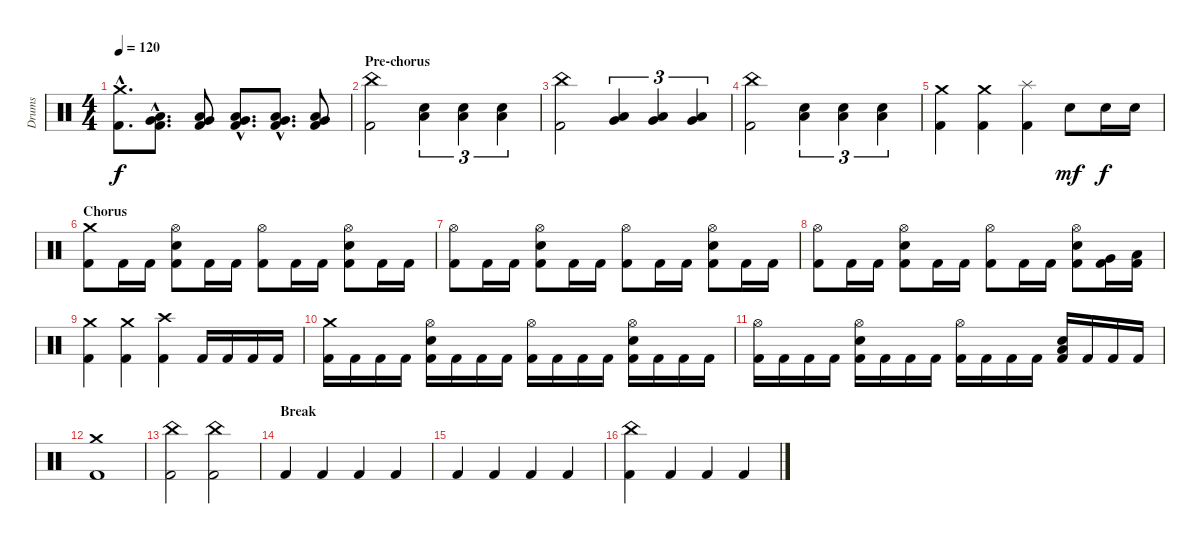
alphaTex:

\track ("Drums" "Drums") {instrument percussion}
\staff {score}
\articulation defaults
\ts (4 4)
\tempo 120
\clef neutral
\ks c
("Crash medium (hit)"{hac} "Kick (hit) 2"{hac}).8{d dy f} ("Very Low Tom (hit)"{hac} "Low Floor Tom (hit)"{hac} "Kick (hit) 2"{hac}).8{d} ("Very Low Tom (hit)" "Low Floor Tom (hit)" "Kick (hit) 2").8 ("Very Low Tom (hit)"{hac} "Low Floor Tom (hit)"{hac} "Kick (hit) 2"{hac}).8{d} ("Very Low Tom (hit)"{hac} "Low Floor Tom (hit)"{hac} "Kick (hit) 2"{hac}).8{d} ("Very Low Tom (hit)" "Low Floor Tom (hit)" "Kick (hit) 2").8 |
\section ("" "Pre-chorus")
("China (hit)" "Kick (hit) 2").2 ("Low Floor Tom (hit)" "Snare (hit) 2").4{tu (3 2)} ("Low Floor Tom (hit)" "Snare (hit) 2").4{tu (3 2)} ("Low Floor Tom (hit)" "Snare (hit) 2").4{tu (3 2)} |
("China (hit)" "Kick (hit) 2").2 ("Very Low Tom (hit)" "Low Floor Tom (hit)").4{tu (3 2)} ("Very Low Tom (hit)" "Low Floor Tom (hit)").4{tu (3 2)} ("Very Low Tom (hit)" "Low Floor Tom (hit)").4{tu (3 2)} |
("China (hit)" "Kick (hit) 2").2 ("Low Floor Tom (hit)" "Snare (hit) 2").4{tu (3 2)} ("Low Floor Tom (hit)" "Snare (hit) 2").4{tu (3 2)} ("Low Floor Tom (hit)" "Snare (hit) 2").4{tu (3 2)} |
("Crash medium (hit)" "Kick (hit) 2").4 ("Crash medium (hit)" "Kick (hit) 2").4 ("Splash (hit)" "Kick (hit) 2").4 "Snare (hit) 2".8{dy mf} "Snare (hit) 2".16{dy f} "Snare (hit) 2".16 |
\section ("" "Chorus")
("Crash medium (hit)" "Kick (hit) 2").8 "Kick (hit) 2".16 "Kick (hit) 2".16 ("Hi-Hat (open)" "Snare (hit) 2" "Kick (hit) 2").8 "Kick (hit) 2".16 "Kick (hit) 2".16 ("Hi-Hat (open)" "Kick (hit) 2").8 "Kick (hit) 2".16 "Kick (hit) 2".16 ("Hi-Hat (open)" "Snare (hit) 2" "Kick (hit) 2").8 "Kick (hit) 2".16 "Kick (hit) 2".16 |
("Hi-Hat (open)" "Kick (hit) 2").8 "Kick (hit) 2".16 "Kick (hit) 2".16 ("Hi-Hat (open)" "Snare (hit) 2" "Kick (hit) 2").8 "Kick (hit) 2".16 "Kick (hit) 2".16 ("Hi-Hat (open)" "Kick (hit) 2").8 "Kick (hit) 2".16 "Kick (hit) 2".16 ("Hi-Hat (open)" "Snare (hit) 2" "Kick (hit) 2").8 "Kick (hit) 2".16 "Kick (hit) 2".16 |
("Hi-Hat (open)" "Kick (hit) 2").8 "Kick (hit) 2".16 "Kick (hit) 2".16 ("Hi-Hat (open)" "Snare (hit) 2" "Kick (hit) 2").8 "Kick (hit) 2".16 "Kick (hit) 2".16 ("Hi-Hat (open)" "Kick (hit) 2").8 "Kick (hit) 2".16 "Kick (hit) 2".16 ("Hi-Hat (open)" "Snare (hit) 2" "Kick (hit) 2").8 ("Very Low Tom (hit)" "Kick (hit) 2").16 ("Low Floor Tom (hit)" "Kick (hit) 2").16 |
("Crash medium (hit)" "Kick (hit) 2").4 ("Crash medium (hit)" "Kick (hit) 2").4 ("Crash high (hit)" "Kick (hit) 2").4 "Kick (hit) 2".16 "Kick (hit) 2".16 "Kick (hit) 2".16 "Kick (hit) 2".16 |
("Crash medium (hit)" "Kick (hit) 2").16 "Kick (hit) 2".16 "Kick (hit) 2".16 "Kick (hit) 2".16 ("Hi-Hat (open)" "Snare (hit) 2" "Kick (hit) 2").16 "Kick (hit) 2".16 "Kick (hit) 2".16 "Kick (hit) 2".16 ("Hi-Hat (open)" "Kick (hit) 2").16 "Kick (hit) 2".16 "Kick (hit) 2".16 "Kick (hit) 2".16 ("Hi-Hat (open)" "Snare (hit) 2" "Kick (hit) 2").16 "Kick (hit) 2".16 "Kick (hit) 2".16 "Kick (hit) 2".16 |
("Hi-Hat (open)" "Kick (hit) 2").16 "Kick (hit) 2".16 "Kick (hit) 2".16 "Kick (hit) 2".16 ("Hi-Hat (open)" "Snare (hit) 2" "Kick (hit) 2").16 "Kick (hit) 2".16 "Kick (hit) 2".16 "Kick (hit) 2".16 ("Hi-Hat (open)" "Kick (hit) 2").16 "Kick (hit) 2".16 "Kick (hit) 2".16 "Kick (hit) 2".16 ("Low Floor Tom (hit)" "Snare (hit) 2" "Kick (hit) 2").16 "Kick (hit) 2".16 "Kick (hit) 2".16 "Kick (hit) 2".16 |
("Crash medium (hit)" "Kick (hit) 2").1 |
("China (hit)" "Kick (hit) 2").2 ("China (hit)" "Kick (hit) 2").2 |
\section ("" "Break")
"Kick (hit) 2".4 "Kick (hit) 2".4 "Kick (hit) 2".4 "Kick (hit) 2".4 |
"Kick (hit) 2".4 "Kick (hit) 2".4 "Kick (hit) 2".4 "Kick (hit) 2".4 |
("China (hit)" "Kick (hit) 2").4 "Kick (hit) 2".4 "Kick (hit) 2".4 "Kick (hit) 2".4
